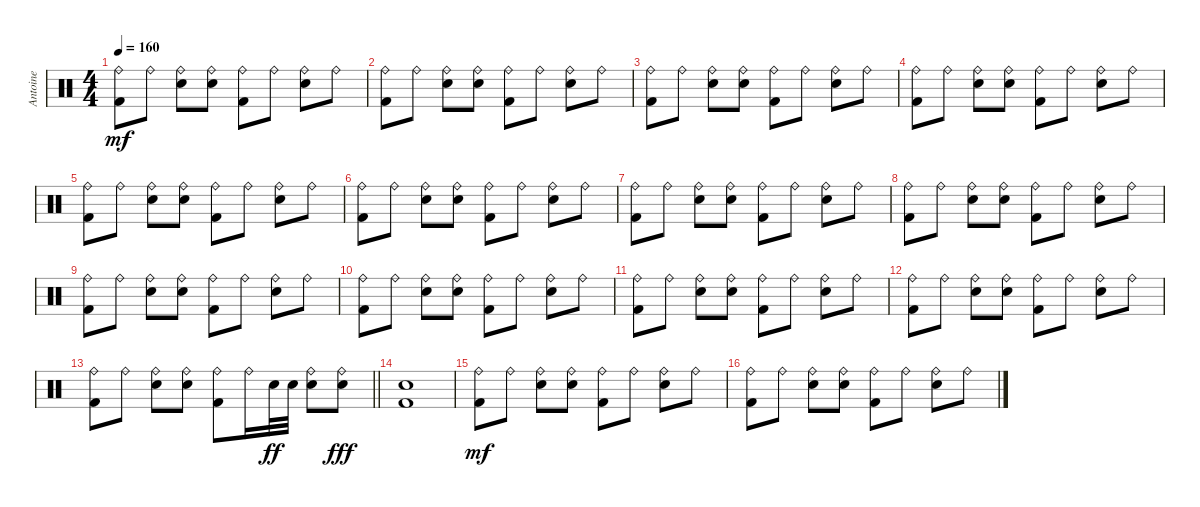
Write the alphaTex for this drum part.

\track ("Antoine" "Antoine") {instrument percussion}
\staff {score}
\articulation defaults
\ts (4 4)
\tempo 160
\clef neutral
\ks c
("Kick (hit) 2" "Ride (bell)").8{dy mf} "Ride (bell)".8 ("Electric Snare (hit)" "Ride (bell)").8 ("Electric Snare (hit)" "Ride (bell)").8 ("Kick (hit) 2" "Ride (bell)").8 "Ride (bell)".8 ("Electric Snare (hit)" "Ride (bell)").8 "Ride (bell)".8 |
("Kick (hit) 2" "Ride (bell)").8 "Ride (bell)".8 ("Electric Snare (hit)" "Ride (bell)").8 ("Electric Snare (hit)" "Ride (bell)").8 ("Kick (hit) 2" "Ride (bell)").8 "Ride (bell)".8 ("Electric Snare (hit)" "Ride (bell)").8 "Ride (bell)".8 |
("Kick (hit) 2" "Ride (bell)").8 "Ride (bell)".8 ("Electric Snare (hit)" "Ride (bell)").8 ("Electric Snare (hit)" "Ride (bell)").8 ("Kick (hit) 2" "Ride (bell)").8 "Ride (bell)".8 ("Electric Snare (hit)" "Ride (bell)").8 "Ride (bell)".8 |
("Kick (hit) 2" "Ride (bell)").8 "Ride (bell)".8 ("Electric Snare (hit)" "Ride (bell)").8 ("Electric Snare (hit)" "Ride (bell)").8 ("Kick (hit) 2" "Ride (bell)").8 "Ride (bell)".8 ("Electric Snare (hit)" "Ride (bell)").8 "Ride (bell)".8 |
("Kick (hit) 2" "Ride (bell)").8 "Ride (bell)".8 ("Electric Snare (hit)" "Ride (bell)").8 ("Electric Snare (hit)" "Ride (bell)").8 ("Kick (hit) 2" "Ride (bell)").8 "Ride (bell)".8 ("Electric Snare (hit)" "Ride (bell)").8 "Ride (bell)".8 |
("Kick (hit) 2" "Ride (bell)").8 "Ride (bell)".8 ("Electric Snare (hit)" "Ride (bell)").8 ("Electric Snare (hit)" "Ride (bell)").8 ("Kick (hit) 2" "Ride (bell)").8 "Ride (bell)".8 ("Electric Snare (hit)" "Ride (bell)").8 "Ride (bell)".8 |
("Kick (hit) 2" "Ride (bell)").8 "Ride (bell)".8 ("Electric Snare (hit)" "Ride (bell)").8 ("Electric Snare (hit)" "Ride (bell)").8 ("Kick (hit) 2" "Ride (bell)").8 "Ride (bell)".8 ("Electric Snare (hit)" "Ride (bell)").8 "Ride (bell)".8 |
("Kick (hit) 2" "Ride (bell)").8 "Ride (bell)".8 ("Electric Snare (hit)" "Ride (bell)").8 ("Electric Snare (hit)" "Ride (bell)").8 ("Kick (hit) 2" "Ride (bell)").8 "Ride (bell)".8 ("Electric Snare (hit)" "Ride (bell)").8 "Ride (bell)".8 |
("Kick (hit) 2" "Ride (bell)").8 "Ride (bell)".8 ("Electric Snare (hit)" "Ride (bell)").8 ("Electric Snare (hit)" "Ride (bell)").8 ("Kick (hit) 2" "Ride (bell)").8 "Ride (bell)".8 ("Electric Snare (hit)" "Ride (bell)").8 "Ride (bell)".8 |
("Kick (hit) 2" "Ride (bell)").8 "Ride (bell)".8 ("Electric Snare (hit)" "Ride (bell)").8 ("Electric Snare (hit)" "Ride (bell)").8 ("Kick (hit) 2" "Ride (bell)").8 "Ride (bell)".8 ("Electric Snare (hit)" "Ride (bell)").8 "Ride (bell)".8 |
("Kick (hit) 2" "Ride (bell)").8 "Ride (bell)".8 ("Electric Snare (hit)" "Ride (bell)").8 ("Electric Snare (hit)" "Ride (bell)").8 ("Kick (hit) 2" "Ride (bell)").8 "Ride (bell)".8 ("Electric Snare (hit)" "Ride (bell)").8 "Ride (bell)".8 |
("Kick (hit) 2" "Ride (bell)").8 "Ride (bell)".8 ("Electric Snare (hit)" "Ride (bell)").8 ("Electric Snare (hit)" "Ride (bell)").8 ("Kick (hit) 2" "Ride (bell)").8 "Ride (bell)".8 ("Electric Snare (hit)" "Ride (bell)").8 "Ride (bell)".8 |
\barLineRight lightlight
("Kick (hit) 2" "Ride (bell)").8 "Ride (bell)".8 ("Electric Snare (hit)" "Ride (bell)").8 ("Electric Snare (hit)" "Ride (bell)").8 ("Kick (hit) 2" "Ride (bell)").8 "Ride (bell)".16 "Electric Snare (hit)".32{dy ff} "Electric Snare (hit)".32 ("Electric Snare (hit)" "Ride (bell)").8 ("Ride (bell)" "Electric Snare (hit)").8{dy fff} |
("Kick (hit) 2" "Electric Snare (hit)").1 |
("Kick (hit) 2" "Ride (bell)").8{dy mf} "Ride (bell)".8 ("Electric Snare (hit)" "Ride (bell)").8 ("Electric Snare (hit)" "Ride (bell)").8 ("Kick (hit) 2" "Ride (bell)").8 "Ride (bell)".8 ("Electric Snare (hit)" "Ride (bell)").8 "Ride (bell)".8 |
("Kick (hit) 2" "Ride (bell)").8 "Ride (bell)".8 ("Electric Snare (hit)" "Ride (bell)").8 ("Electric Snare (hit)" "Ride (bell)").8 ("Kick (hit) 2" "Ride (bell)").8 "Ride (bell)".8 ("Electric Snare (hit)" "Ride (bell)").8 "Ride (bell)".8
